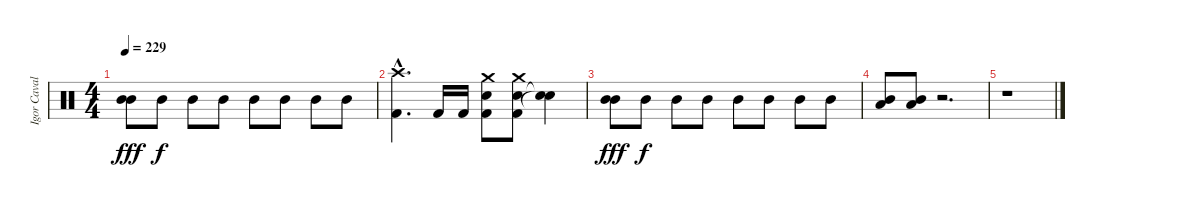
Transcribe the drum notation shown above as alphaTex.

\track ("Igor Cavalera" "Igor Caval") {instrument percussion}
\staff {score}
\articulation defaults
\ts (4 4)
\tempo 229
\clef neutral
\ks c
("Mid Tom (hit)" "Mid Tom (hit)").8{dy fff} "Mid Tom (hit)".8{dy f} "Mid Tom (hit)".8 "Mid Tom (hit)".8 "Mid Tom (hit)".8 "Mid Tom (hit)".8 "Mid Tom (hit)".8 "Mid Tom (hit)".8 |
("Kick (hit) 2"{hac} "Crash high (hit)"{hac}).4{d} "Kick (hit) 2".16 "Kick (hit) 2".16 ("Kick (hit) 2" "Snare (hit) 2" "Crash medium (hit)").8 ("Kick (hit) 2" "Snare (hit) 2" "Crash medium (hit)").8 ("Snare (hit)"{t} "Snare (hit)"{t}).4 |
("Mid Tom (hit)" "Mid Tom (hit)").8{dy fff} "Mid Tom (hit)".8{dy f} "Mid Tom (hit)".8 "Mid Tom (hit)".8 "Mid Tom (hit)".8 "Mid Tom (hit)".8 "Mid Tom (hit)".8 "Mid Tom (hit)".8 |
("Mid Tom (hit)" "Low Tom (hit)").8 ("Mid Tom (hit)" "Low Tom (hit)").8 r.2{d} |
r.1
